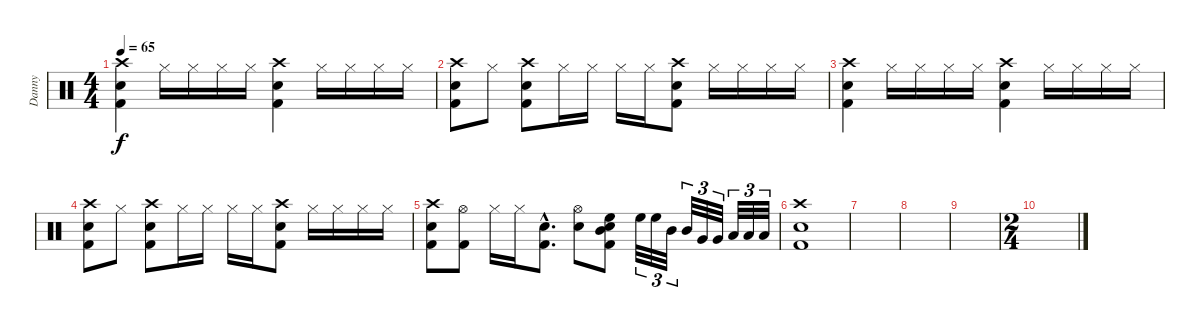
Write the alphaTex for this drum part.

\track ("Danny" "Danny") {instrument percussion}
\staff {score}
\articulation defaults
\ts (4 4)
\tempo 65
\clef neutral
\ks c
("Crash high (hit)" "Snare (hit) 2" "Kick (hit) 2").4{dy f} "Hi-Hat (closed)".16 "Hi-Hat (closed)".16 "Hi-Hat (closed)".16 "Hi-Hat (closed)".16 ("Crash high (hit)" "Snare (hit) 2" "Kick (hit) 2").4 "Hi-Hat (closed)".16 "Hi-Hat (closed)".16 "Hi-Hat (closed)".16 "Hi-Hat (closed)".16 |
("Crash high (hit)" "Snare (hit) 2" "Kick (hit) 2").8 "Hi-Hat (closed)".8 ("Crash high (hit)" "Snare (hit) 2" "Kick (hit) 2").8 "Hi-Hat (closed)".16 "Hi-Hat (closed)".16 "Hi-Hat (closed)".16 "Hi-Hat (closed)".16 ("Crash high (hit)" "Snare (hit) 2" "Kick (hit) 2").8 "Hi-Hat (closed)".16 "Hi-Hat (closed)".16 "Hi-Hat (closed)".16 "Hi-Hat (closed)".16 |
("Crash high (hit)" "Snare (hit) 2" "Kick (hit) 2").4 "Hi-Hat (closed)".16 "Hi-Hat (closed)".16 "Hi-Hat (closed)".16 "Hi-Hat (closed)".16 ("Crash high (hit)" "Snare (hit) 2" "Kick (hit) 2").4 "Hi-Hat (closed)".16 "Hi-Hat (closed)".16 "Hi-Hat (closed)".16 "Hi-Hat (closed)".16 |
("Crash high (hit)" "Snare (hit) 2" "Kick (hit) 2").8 "Hi-Hat (closed)".8 ("Crash high (hit)" "Snare (hit) 2" "Kick (hit) 2").8 "Hi-Hat (closed)".16 "Hi-Hat (closed)".16 "Hi-Hat (closed)".16 "Hi-Hat (closed)".16 ("Crash high (hit)" "Snare (hit) 2" "Kick (hit) 2").8 "Hi-Hat (closed)".16 "Hi-Hat (closed)".16 "Hi-Hat (closed)".16 "Hi-Hat (closed)".16 |
("Crash high (hit)" "Snare (hit) 2" "Kick (hit) 2").8 ("Hi-Hat (open)" "Kick (hit) 2").8 "Hi-Hat (closed)".16 "Hi-Hat (closed)".16 ("Snare (hit) 2"{hac} "Kick (hit) 2"{hac}).8{d} ("Hi-Hat (open)" "Snare (hit) 2").8 ("High Floor Tom (hit)" "Mid Tom (hit)" "Snare (hit) 2" "Kick (hit) 2").8 "High Floor Tom (hit)".32{tu (3 2)} "High Floor Tom (hit)".32{tu (3 2)} "Mid Tom (hit)".32{tu (3 2)} "Mid Tom (hit)".32{tu (3 2)} "Very Low Tom (hit)".32{tu (3 2)} "Very Low Tom (hit)".32{tu (3 2)} "Low Floor Tom (hit)".32{tu (3 2)} "Low Floor Tom (hit)".32{tu (3 2)} "Low Floor Tom (hit)".32{tu (3 2)} |
("Crash high (hit)" "Snare (hit) 2" "Kick (hit) 2").1 |
|
|
|
\ts (2 4)
